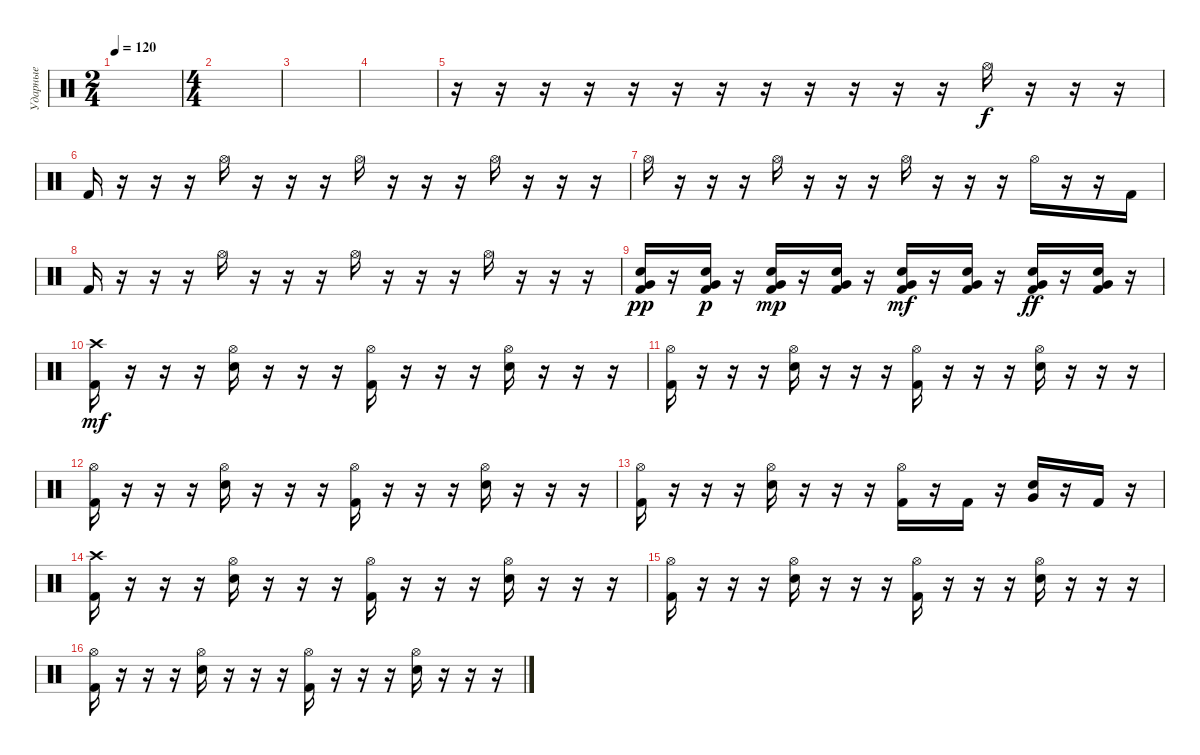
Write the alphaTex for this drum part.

\track ("Ударные" "Ударные") {instrument percussion}
\staff {score}
\articulation defaults
\ts (2 4)
\tempo 120
\clef neutral
\ks c
|
\ts (4 4)
|
|
|
r.16 r.16 r.16 r.16 r.16 r.16 r.16 r.16 r.16 r.16 r.16 r.16 "Hi-Hat (open)".16 r.16 r.16 r.16 |
"Kick (hit) 2".16 r.16 r.16 r.16 "Hi-Hat (open)".16 r.16 r.16 r.16 "Hi-Hat (open)".16 r.16 r.16 r.16 "Hi-Hat (open)".16 r.16 r.16 r.16 |
"Hi-Hat (open)".16 r.16 r.16 r.16 "Hi-Hat (open)".16 r.16 r.16 r.16 "Hi-Hat (open)".16 r.16 r.16 r.16 "Hi-Hat (open)".16 r.16 r.16 "Kick (hit) 2".16 |
"Kick (hit) 2".16 r.16 r.16 r.16 "Hi-Hat (open)".16 r.16 r.16 r.16 "Hi-Hat (open)".16 r.16 r.16 r.16 "Hi-Hat (open)".16 r.16 r.16 r.16 |
("Electric Snare (hit)" "Very Low Tom (hit)" "Kick (hit) 2").16{dy pp} r.16 ("Electric Snare (hit)" "Very Low Tom (hit)" "Kick (hit) 2").16{dy p} r.16 ("Electric Snare (hit)" "Very Low Tom (hit)" "Kick (hit) 2").16{dy mp} r.16 ("Electric Snare (hit)" "Very Low Tom (hit)" "Kick (hit) 2").16 r.16 ("Electric Snare (hit)" "Very Low Tom (hit)" "Kick (hit) 2").16{dy mf} r.16 ("Electric Snare (hit)" "Very Low Tom (hit)" "Kick (hit) 2").16 r.16 ("Electric Snare (hit)" "Very Low Tom (hit)" "Kick (hit) 2").16{dy ff} r.16 ("Electric Snare (hit)" "Very Low Tom (hit)" "Kick (hit) 2").16 r.16 |
("Crash high (hit)" "Kick (hit) 2").16{dy mf} r.16 r.16 r.16 ("Hi-Hat (open)" "Electric Snare (hit)").16 r.16 r.16 r.16 ("Hi-Hat (open)" "Kick (hit) 2").16 r.16 r.16 r.16 ("Hi-Hat (open)" "Electric Snare (hit)").16 r.16 r.16 r.16 |
("Hi-Hat (open)" "Kick (hit) 2").16 r.16 r.16 r.16 ("Hi-Hat (open)" "Electric Snare (hit)").16 r.16 r.16 r.16 ("Hi-Hat (open)" "Kick (hit) 2").16 r.16 r.16 r.16 ("Hi-Hat (open)" "Electric Snare (hit)").16 r.16 r.16 r.16 |
("Hi-Hat (open)" "Kick (hit) 2").16 r.16 r.16 r.16 ("Hi-Hat (open)" "Electric Snare (hit)").16 r.16 r.16 r.16 ("Hi-Hat (open)" "Kick (hit) 2").16 r.16 r.16 r.16 ("Hi-Hat (open)" "Electric Snare (hit)").16 r.16 r.16 r.16 |
("Hi-Hat (open)" "Kick (hit) 2").16 r.16 r.16 r.16 ("Hi-Hat (open)" "Electric Snare (hit)").16 r.16 r.16 r.16 ("Hi-Hat (open)" "Kick (hit) 2").16 r.16 "Kick (hit) 2".16 r.16 ("Very Low Tom (hit)" "Electric Snare (hit)").16 r.16 "Kick (hit) 2".16 r.16 |
("Crash high (hit)" "Kick (hit) 2").16 r.16 r.16 r.16 ("Hi-Hat (open)" "Electric Snare (hit)").16 r.16 r.16 r.16 ("Hi-Hat (open)" "Kick (hit) 2").16 r.16 r.16 r.16 ("Hi-Hat (open)" "Electric Snare (hit)").16 r.16 r.16 r.16 |
("Hi-Hat (open)" "Kick (hit) 2").16 r.16 r.16 r.16 ("Hi-Hat (open)" "Electric Snare (hit)").16 r.16 r.16 r.16 ("Hi-Hat (open)" "Kick (hit) 2").16 r.16 r.16 r.16 ("Hi-Hat (open)" "Electric Snare (hit)").16 r.16 r.16 r.16 |
("Hi-Hat (open)" "Kick (hit) 2").16 r.16 r.16 r.16 ("Hi-Hat (open)" "Electric Snare (hit)").16 r.16 r.16 r.16 ("Hi-Hat (open)" "Kick (hit) 2").16 r.16 r.16 r.16 ("Hi-Hat (open)" "Electric Snare (hit)").16 r.16 r.16 r.16
